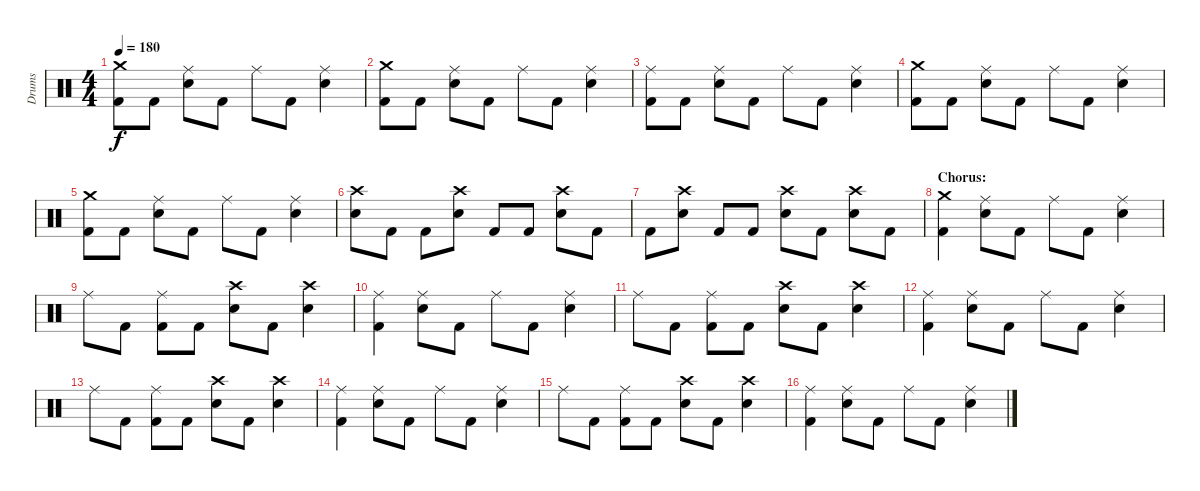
\track ("Drums" "Drums") {instrument percussion}
\staff {score}
\articulation defaults
\ts (4 4)
\tempo 180
\clef neutral
\ks c
("Crash medium (hit)" "Kick (hit) 2").8{dy f} "Kick (hit) 2".8 ("Ride (middle)" "Electric Snare (hit)").8 "Kick (hit) 2".8 "Ride (middle)".8 "Kick (hit) 2".8 ("Ride (middle)" "Electric Snare (hit)").4 |
("Crash medium (hit)" "Kick (hit) 2").8 "Kick (hit) 2".8 ("Ride (middle)" "Electric Snare (hit)").8 "Kick (hit) 2".8 "Ride (middle)".8 "Kick (hit) 2".8 ("Ride (middle)" "Electric Snare (hit)").4 |
("Ride (middle)" "Kick (hit) 2").8 "Kick (hit) 2".8 ("Ride (middle)" "Electric Snare (hit)").8 "Kick (hit) 2".8 "Ride (middle)".8 "Kick (hit) 2".8 ("Ride (middle)" "Electric Snare (hit)").4 |
("Crash medium (hit)" "Kick (hit) 2").8 "Kick (hit) 2".8 ("Ride (middle)" "Electric Snare (hit)").8 "Kick (hit) 2".8 "Ride (middle)".8 "Kick (hit) 2".8 ("Ride (middle)" "Electric Snare (hit)").4 |
("Crash medium (hit)" "Kick (hit) 2").8 "Kick (hit) 2".8 ("Ride (middle)" "Electric Snare (hit)").8 "Kick (hit) 2".8 "Ride (middle)".8 "Kick (hit) 2".8 ("Ride (middle)" "Electric Snare (hit)").4 |
("Crash high (hit)" "Electric Snare (hit)").8 "Kick (hit) 2".8 "Kick (hit) 2".8 ("Crash high (hit)" "Electric Snare (hit)").8 "Kick (hit) 2".8 "Kick (hit) 2".8 ("Crash high (hit)" "Electric Snare (hit)").8 "Kick (hit) 2".8 |
"Kick (hit) 2".8 ("Crash high (hit)" "Electric Snare (hit)").8 "Kick (hit) 2".8 "Kick (hit) 2".8 ("Crash high (hit)" "Electric Snare (hit)").8 "Kick (hit) 2".8 ("Crash high (hit)" "Electric Snare (hit)").8 "Kick (hit) 2".8 |
\section ("" "Chorus:")
("Crash medium (hit)" "Kick (hit) 2").4 ("Ride (middle)" "Electric Snare (hit)").8 "Kick (hit) 2".8 "Ride (middle)".8 "Kick (hit) 2".8 ("Ride (middle)" "Electric Snare (hit)").4 |
"Ride (middle)".8 "Kick (hit) 2".8 ("Ride (middle)" "Kick (hit) 2").8 "Kick (hit) 2".8 ("Crash high (hit)" "Electric Snare (hit)").8 "Kick (hit) 2".8 ("Crash high (hit)" "Electric Snare (hit)").4 |
("Ride (middle)" "Kick (hit) 2").4 ("Ride (middle)" "Electric Snare (hit)").8 "Kick (hit) 2".8 "Ride (middle)".8 "Kick (hit) 2".8 ("Ride (middle)" "Electric Snare (hit)").4 |
"Ride (middle)".8 "Kick (hit) 2".8 ("Ride (middle)" "Kick (hit) 2").8 "Kick (hit) 2".8 ("Crash high (hit)" "Electric Snare (hit)").8 "Kick (hit) 2".8 ("Crash high (hit)" "Electric Snare (hit)").4 |
("Ride (middle)" "Kick (hit) 2").4 ("Ride (middle)" "Electric Snare (hit)").8 "Kick (hit) 2".8 "Ride (middle)".8 "Kick (hit) 2".8 ("Ride (middle)" "Electric Snare (hit)").4 |
"Ride (middle)".8 "Kick (hit) 2".8 ("Ride (middle)" "Kick (hit) 2").8 "Kick (hit) 2".8 ("Crash high (hit)" "Electric Snare (hit)").8 "Kick (hit) 2".8 ("Crash high (hit)" "Electric Snare (hit)").4 |
("Ride (middle)" "Kick (hit) 2").4 ("Ride (middle)" "Electric Snare (hit)").8 "Kick (hit) 2".8 "Ride (middle)".8 "Kick (hit) 2".8 ("Ride (middle)" "Electric Snare (hit)").4 |
"Ride (middle)".8 "Kick (hit) 2".8 ("Ride (middle)" "Kick (hit) 2").8 "Kick (hit) 2".8 ("Crash high (hit)" "Electric Snare (hit)").8 "Kick (hit) 2".8 ("Crash high (hit)" "Electric Snare (hit)").4 |
("Ride (middle)" "Kick (hit) 2").4 ("Ride (middle)" "Electric Snare (hit)").8 "Kick (hit) 2".8 "Ride (middle)".8 "Kick (hit) 2".8 ("Ride (middle)" "Electric Snare (hit)").4
